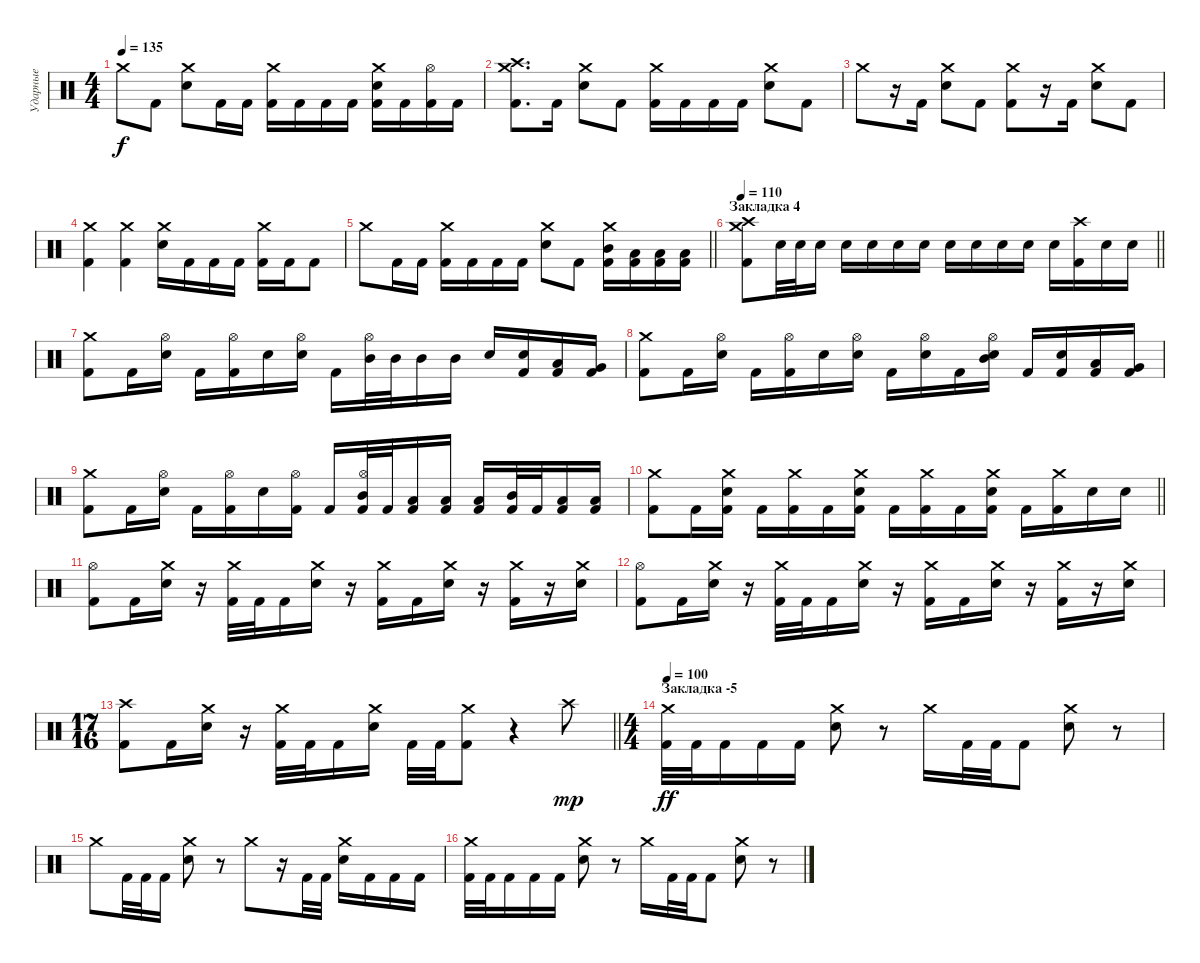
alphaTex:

\track ("Ударные" "Ударные") {instrument percussion}
\staff {score}
\articulation defaults
\ts (4 4)
\tempo 135
\clef neutral
\ks c "Crash medium (hit)".8{dy f} "Kick (hit) 2".8
("Crash medium (hit)" "Electric Snare (hit)").8 "Kick (hit) 2".16 "Kick (hit) 2".16 ("Crash medium (hit)" "Kick (hit) 2").16 "Kick (hit) 2".16 "Kick (hit) 2".16 "Kick (hit) 2".16 ("Crash medium (hit)" "Electric Snare (hit)" "Kick (hit) 2").16 "Kick (hit) 2".16 ("Hi-Hat (open)" "Kick (hit) 2").16 "Kick (hit) 2".16 |
("Crash medium (hit)" "Crash high (hit)" "Kick (hit) 2").8{d} "Kick (hit) 2".16 ("Crash medium (hit)" "Electric Snare (hit)").8 "Kick (hit) 2".8 ("Crash medium (hit)" "Kick (hit) 2").16 "Kick (hit) 2".16 "Kick (hit) 2".16 "Kick (hit) 2".16 ("Crash medium (hit)" "Electric Snare (hit)").8 "Kick (hit) 2".8 |
"Crash medium (hit)".8 r.16 "Kick (hit) 2".16 ("Crash medium (hit)" "Electric Snare (hit)").8 "Kick (hit) 2".8 ("Crash medium (hit)" "Kick (hit) 2").8 r.16 "Kick (hit) 2".16 ("Crash medium (hit)" "Electric Snare (hit)").8 "Kick (hit) 2".8 |
("Crash medium (hit)" "Kick (hit) 2").4 ("Crash medium (hit)" "Kick (hit) 2").4 ("Crash medium (hit)" "Electric Snare (hit)").16 "Kick (hit) 2".16 "Kick (hit) 2".16 "Kick (hit) 2".16 ("Crash medium (hit)" "Kick (hit) 2").16 "Kick (hit) 2".16 "Kick (hit) 2".8 |
\barLineRight lightlight "Crash medium (hit)".8 "Kick (hit) 2".16 "Kick (hit) 2".16
("Crash medium (hit)" "Kick (hit) 2").16 "Kick (hit) 2".16 "Kick (hit) 2".16 "Kick (hit) 2".16 ("Crash medium (hit)" "Electric Snare (hit)").8 "Kick (hit) 2".8 ("Crash medium (hit)" "Mid Tom (hit)" "Kick (hit) 2").16 ("Low Floor Tom (hit)" "Kick (hit) 2").16 ("Low Tom (hit)" "Kick (hit) 2").16 ("Low Floor Tom (hit)" "Kick (hit) 2").16 |
\section ("" "Закладка 4")
\tempo 110
\barLineRight lightlight
("Crash high (hit)" "Crash medium (hit)" "Kick (hit) 2").8 "Electric Snare (hit)".32 "Electric Snare (hit)".32 "Electric Snare (hit)".16 "Electric Snare (hit)".16 "Electric Snare (hit)".16 "Electric Snare (hit)".16 "Electric Snare (hit)".16 "Electric Snare (hit)".16 "Electric Snare (hit)".16 "Electric Snare (hit)".16 "Electric Snare (hit)".16 "Electric Snare (hit)".16 ("Crash high (hit)" "Kick (hit) 2").16 "Electric Snare (hit)".16 "Electric Snare (hit)".16 |
("Crash medium (hit)" "Kick (hit) 2").8 "Kick (hit) 2".16 ("Hi-Hat (open)" "Electric Snare (hit)").16 "Kick (hit) 2".16 ("Hi-Hat (open)" "Kick (hit) 2").16 "Electric Snare (hit)".16 ("Hi-Hat (open)" "Electric Snare (hit)").16 "Kick (hit) 2".16 ("Hi-Hat (open)" "Mid Tom (hit)").32 "Mid Tom (hit)".32 "Mid Tom (hit)".16 "Mid Tom (hit)".16 "Electric Snare (hit)".16 ("Electric Snare (hit)" "Kick (hit) 2").16 ("Low Tom (hit)" "Kick (hit) 2").16 ("Very Low Tom (hit)" "Kick (hit) 2").16 |
("Crash medium (hit)" "Kick (hit) 2").8 "Kick (hit) 2".16 ("Hi-Hat (open)" "Electric Snare (hit)").16 "Kick (hit) 2".16 ("Hi-Hat (open)" "Kick (hit) 2").16 "Electric Snare (hit)".16 ("Hi-Hat (open)" "Electric Snare (hit)").16 "Kick (hit) 2".16 ("Hi-Hat (open)" "Electric Snare (hit)").16 "Kick (hit) 2".16 ("Hi-Hat (open)" "Mid Tom (hit)" "Electric Snare (hit)").16 "Kick (hit) 2".16 ("Electric Snare (hit)" "Kick (hit) 2").16 ("Low Tom (hit)" "Kick (hit) 2").16 ("Very Low Tom (hit)" "Kick (hit) 2").16 |
("Crash medium (hit)" "Kick (hit) 2").8 "Kick (hit) 2".16 ("Hi-Hat (open)" "Electric Snare (hit)").16 "Kick (hit) 2".16 ("Hi-Hat (open)" "Kick (hit) 2").16 "Electric Snare (hit)".16 ("Hi-Hat (open)" "Kick (hit) 2").16 "Kick (hit) 2".16 ("Hi-Hat (open)" "Mid Tom (hit)" "Kick (hit) 2").32 "Kick (hit) 2".32 ("Low Tom (hit)" "Kick (hit) 2").16 ("Low Floor Tom (hit)" "Kick (hit) 2").16 ("Low Floor Tom (hit)" "Kick (hit) 2").16 ("Mid Tom (hit)" "Kick (hit) 2").32 "Kick (hit) 2".32 ("Low Tom (hit)" "Kick (hit) 2").16 ("Low Floor Tom (hit)" "Kick (hit) 2").16 |
\barLineRight lightlight
("Crash medium (hit)" "Kick (hit) 2").8 "Kick (hit) 2".16 ("Crash medium (hit)" "Electric Snare (hit)" "Kick (hit) 2").16 "Kick (hit) 2".16 ("Crash medium (hit)" "Kick (hit) 2").16 "Kick (hit) 2".16 ("Crash medium (hit)" "Electric Snare (hit)" "Kick (hit) 2").16 "Kick (hit) 2".16 ("Crash medium (hit)" "Kick (hit) 2").16 "Kick (hit) 2".16 ("Crash medium (hit)" "Electric Snare (hit)" "Kick (hit) 2").16 "Kick (hit) 2".16 ("Crash medium (hit)" "Kick (hit) 2").16 "Electric Snare (hit)".16 "Electric Snare (hit)".16 |
("Hi-Hat (open)" "Kick (hit) 2").8 "Kick (hit) 2".16 ("Crash medium (hit)" "Electric Snare (hit)").16 r.16 ("Crash medium (hit)" "Kick (hit) 2").32 "Kick (hit) 2".32 "Kick (hit) 2".16 ("Crash medium (hit)" "Electric Snare (hit)").16 r.16 ("Crash medium (hit)" "Kick (hit) 2").16 "Kick (hit) 2".16 ("Crash medium (hit)" "Electric Snare (hit)").16 r.16 ("Crash medium (hit)" "Kick (hit) 2").16 r.16 ("Crash medium (hit)" "Electric Snare (hit)").16 |
("Hi-Hat (open)" "Kick (hit) 2").8 "Kick (hit) 2".16 ("Crash medium (hit)" "Electric Snare (hit)").16 r.16 ("Crash medium (hit)" "Kick (hit) 2").32 "Kick (hit) 2".32 "Kick (hit) 2".16 ("Crash medium (hit)" "Electric Snare (hit)").16 r.16 ("Crash medium (hit)" "Kick (hit) 2").16 "Kick (hit) 2".16 ("Crash medium (hit)" "Electric Snare (hit)").16 r.16 ("Crash medium (hit)" "Kick (hit) 2").16 r.16 ("Crash medium (hit)" "Electric Snare (hit)").16 |
\ts (17 16)
\barLineRight lightlight
("Crash high (hit)" "Kick (hit) 2").8 "Kick (hit) 2".16 ("Crash medium (hit)" "Electric Snare (hit)").16 r.16 ("Crash medium (hit)" "Kick (hit) 2").32 "Kick (hit) 2".32 "Kick (hit) 2".16 ("Crash medium (hit)" "Electric Snare (hit)").16 "Kick (hit) 2".32 "Kick (hit) 2".32 ("Crash medium (hit)" "Kick (hit) 2").8 r.4 "Crash high (hit)".8{dy mp} |
\ts (4 4)
\section ("" "Закладка -5")
\tempo 100
("Crash medium (hit)" "Kick (hit) 2").32{dy ff} "Kick (hit) 2".32 "Kick (hit) 2".16 "Kick (hit) 2".16 "Kick (hit) 2".16 ("Crash medium (hit)" "Electric Snare (hit)").8 r.8 "Crash medium (hit)".16 "Kick (hit) 2".32 "Kick (hit) 2".32 "Kick (hit) 2".8 ("Crash medium (hit)" "Electric Snare (hit)").8 r.8 |
"Crash medium (hit)".8 "Kick (hit) 2".32 "Kick (hit) 2".32 "Kick (hit) 2".16 ("Crash medium (hit)" "Electric Snare (hit)").8 r.8 "Crash medium (hit)".8 r.16 "Kick (hit) 2".32 "Kick (hit) 2".32 ("Crash medium (hit)" "Electric Snare (hit)").16 "Kick (hit) 2".16 "Kick (hit) 2".16 "Kick (hit) 2".16 |
("Crash medium (hit)" "Kick (hit) 2").32 "Kick (hit) 2".32 "Kick (hit) 2".16 "Kick (hit) 2".16 "Kick (hit) 2".16 ("Crash medium (hit)" "Electric Snare (hit)").8 r.8 "Crash medium (hit)".16 "Kick (hit) 2".32 "Kick (hit) 2".32 "Kick (hit) 2".8 ("Crash medium (hit)" "Electric Snare (hit)").8 r.8
